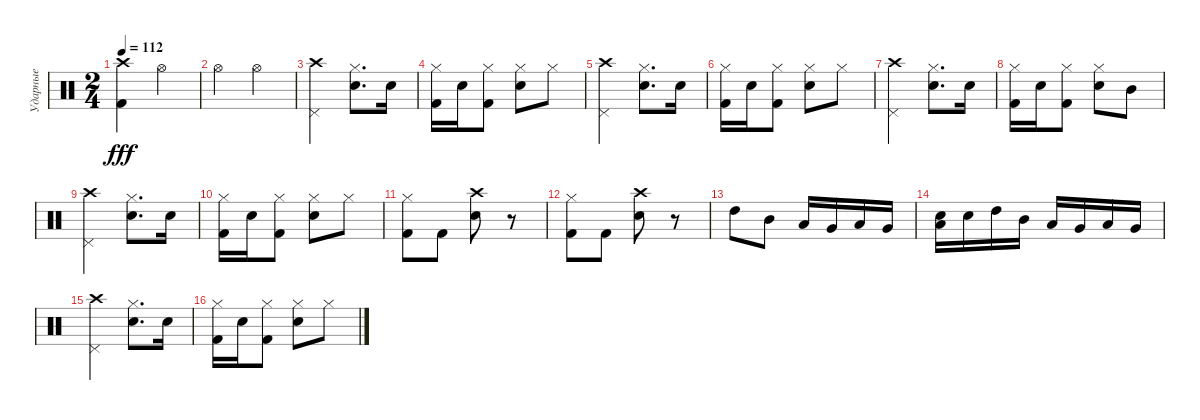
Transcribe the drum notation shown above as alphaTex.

\track ("Ударные" "Ударные") {instrument percussion}
\staff {score}
\articulation defaults
\ts (2 4)
\tempo 112
\clef neutral
\ks c
("Kick (hit) 2" "Crash high (hit)").4{dy fff} "Hi-Hat (open)".4 |
"Hi-Hat (open)".4 "Hi-Hat (open)".4 |
("Pedal Hi-Hat (hit)" "Crash high (hit)").4 ("Electric Snare (hit)" "Hi-Hat (closed)").8{d} "Electric Snare (hit)".16 |
("Kick (hit) 2" "Hi-Hat (closed)").16 "Electric Snare (hit)".16 ("Kick (hit) 2" "Hi-Hat (closed)").8 ("Electric Snare (hit)" "Hi-Hat (closed)").8 "Hi-Hat (closed)".8 |
("Pedal Hi-Hat (hit)" "Crash high (hit)").4 ("Hi-Hat (closed)" "Electric Snare (hit)").8{d} "Electric Snare (hit)".16 |
("Kick (hit) 2" "Hi-Hat (closed)").16 "Electric Snare (hit)".16 ("Kick (hit) 2" "Hi-Hat (closed)").8 ("Electric Snare (hit)" "Hi-Hat (closed)").8 "Hi-Hat (closed)".8 |
("Pedal Hi-Hat (hit)" "Crash high (hit)").4 ("Hi-Hat (closed)" "Electric Snare (hit)").8{d} "Electric Snare (hit)".16 |
("Kick (hit) 2" "Hi-Hat (closed)").16 "Electric Snare (hit)".16 ("Kick (hit) 2" "Hi-Hat (closed)").8 ("Electric Snare (hit)" "Hi-Hat (closed)").8 "Mid Tom (hit)".8 |
("Pedal Hi-Hat (hit)" "Crash high (hit)").4 ("Hi-Hat (closed)" "Electric Snare (hit)").8{d} "Electric Snare (hit)".16 |
("Kick (hit) 2" "Hi-Hat (closed)").16 "Electric Snare (hit)".16 ("Kick (hit) 2" "Hi-Hat (closed)").8 ("Electric Snare (hit)" "Hi-Hat (closed)").8 "Hi-Hat (closed)".8 |
("Hi-Hat (closed)" "Kick (hit) 2").8 "Kick (hit) 2".8 ("Electric Snare (hit)" "Crash high (hit)").8 r.8 |
("Kick (hit) 2" "Hi-Hat (closed)").8 "Kick (hit) 2".8 ("Electric Snare (hit)" "Crash high (hit)").8 r.8 |
"High Tom (hit)".8 "Mid Tom (hit)".8 "Low Tom (hit)".16 "Very Low Tom (hit)".16 "Low Floor Tom (hit)".16 "Very Low Tom (hit)".16 |
("Electric Snare (hit)" "Low Floor Tom (hit)").16 "Electric Snare (hit)".16 "High Tom (hit)".16 "Mid Tom (hit)".16 "Low Tom (hit)".16 "Very Low Tom (hit)".16 "Low Floor Tom (hit)".16 "Very Low Tom (hit)".16 |
("Pedal Hi-Hat (hit)" "Crash high (hit)").4 ("Hi-Hat (closed)" "Electric Snare (hit)").8{d} "Electric Snare (hit)".16 |
("Kick (hit) 2" "Hi-Hat (closed)").16 "Electric Snare (hit)".16 ("Kick (hit) 2" "Hi-Hat (closed)").8 ("Electric Snare (hit)" "Hi-Hat (closed)").8 "Hi-Hat (closed)".8
